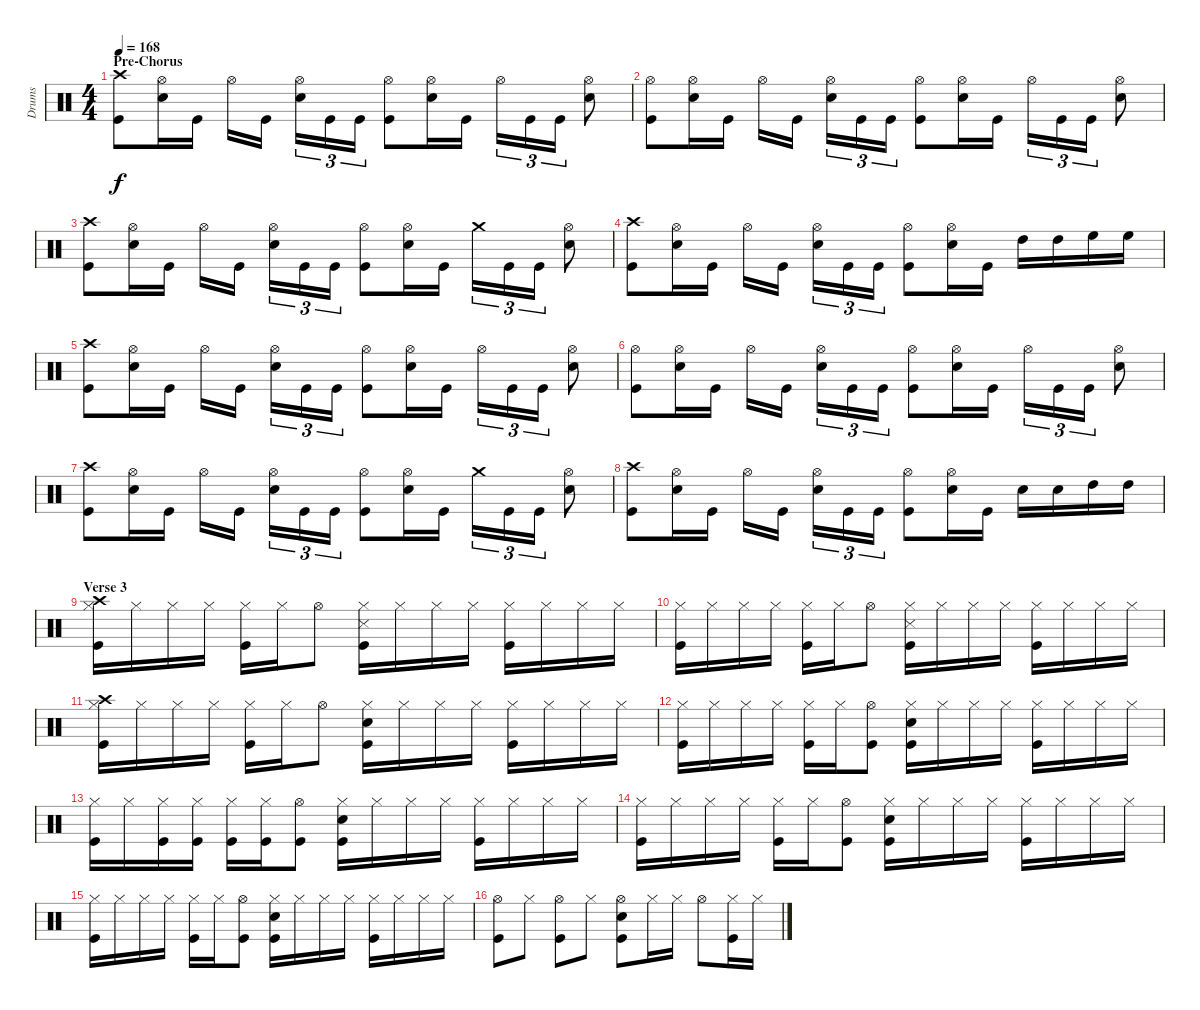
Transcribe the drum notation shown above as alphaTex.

\track ("Drums" "Drums") {instrument percussion}
\staff {score}
\articulation defaults
\ts (4 4)
\section ("" "Pre-Chorus")
\tempo 168
\clef neutral
\ks c
("Crash high (hit)" "Kick (hit)").8{dy f} ("Hi-Hat (open)" "Electric Snare (hit)").16 "Kick (hit)".16 "Hi-Hat (open)".16 "Kick (hit)".16 ("Hi-Hat (open)" "Electric Snare (hit)").16{tu (3 2)} "Kick (hit)".16{tu (3 2)} "Kick (hit)".16{tu (3 2)} ("Hi-Hat (open)" "Kick (hit)").8 ("Hi-Hat (open)" "Electric Snare (hit)").16 "Kick (hit)".16 "Hi-Hat (open)".16{tu (3 2)} "Kick (hit)".16{tu (3 2)} "Kick (hit)".16{tu (3 2)} ("Hi-Hat (open)" "Electric Snare (hit)").8 |
("Hi-Hat (open)" "Kick (hit)").8 ("Hi-Hat (open)" "Electric Snare (hit)").16 "Kick (hit)".16 "Hi-Hat (open)".16 "Kick (hit)".16 ("Hi-Hat (open)" "Electric Snare (hit)").16{tu (3 2)} "Kick (hit)".16{tu (3 2)} "Kick (hit)".16{tu (3 2)} ("Hi-Hat (open)" "Kick (hit)").8 ("Hi-Hat (open)" "Electric Snare (hit)").16 "Kick (hit)".16 "Hi-Hat (open)".16{tu (3 2)} "Kick (hit)".16{tu (3 2)} "Kick (hit)".16{tu (3 2)} ("Hi-Hat (open)" "Electric Snare (hit)").8 |
("Crash high (hit)" "Kick (hit)").8 ("Hi-Hat (open)" "Electric Snare (hit)").16 "Kick (hit)".16 "Hi-Hat (open)".16 "Kick (hit)".16 ("Hi-Hat (open)" "Electric Snare (hit)").16{tu (3 2)} "Kick (hit)".16{tu (3 2)} "Kick (hit)".16{tu (3 2)} ("Hi-Hat (open)" "Kick (hit)").8 ("Hi-Hat (open)" "Electric Snare (hit)").16 "Kick (hit)".16 "Crash medium (hit)".16{tu (3 2)} "Kick (hit)".16{tu (3 2)} "Kick (hit)".16{tu (3 2)} ("Hi-Hat (open)" "Electric Snare (hit)").8 |
("Crash high (hit)" "Kick (hit)").8 ("Hi-Hat (open)" "Electric Snare (hit)").16 "Kick (hit)".16 "Hi-Hat (open)".16 "Kick (hit)".16 ("Hi-Hat (open)" "Electric Snare (hit)").16{tu (3 2)} "Kick (hit)".16{tu (3 2)} "Kick (hit)".16{tu (3 2)} ("Hi-Hat (open)" "Kick (hit)").8 ("Hi-Hat (open)" "Electric Snare (hit)").16 "Kick (hit)".16 "High Tom (hit)".16 "High Tom (hit)".16 "High Floor Tom (hit)".16 "High Floor Tom (hit)".16 |
("Crash high (hit)" "Kick (hit)").8 ("Hi-Hat (open)" "Electric Snare (hit)").16 "Kick (hit)".16 "Hi-Hat (open)".16 "Kick (hit)".16 ("Hi-Hat (open)" "Electric Snare (hit)").16{tu (3 2)} "Kick (hit)".16{tu (3 2)} "Kick (hit)".16{tu (3 2)} ("Hi-Hat (open)" "Kick (hit)").8 ("Hi-Hat (open)" "Electric Snare (hit)").16 "Kick (hit)".16 "Hi-Hat (open)".16{tu (3 2)} "Kick (hit)".16{tu (3 2)} "Kick (hit)".16{tu (3 2)} ("Hi-Hat (open)" "Electric Snare (hit)").8 |
("Hi-Hat (open)" "Kick (hit)").8 ("Hi-Hat (open)" "Electric Snare (hit)").16 "Kick (hit)".16 "Hi-Hat (open)".16 "Kick (hit)".16 ("Hi-Hat (open)" "Electric Snare (hit)").16{tu (3 2)} "Kick (hit)".16{tu (3 2)} "Kick (hit)".16{tu (3 2)} ("Hi-Hat (open)" "Kick (hit)").8 ("Hi-Hat (open)" "Electric Snare (hit)").16 "Kick (hit)".16 "Hi-Hat (open)".16{tu (3 2)} "Kick (hit)".16{tu (3 2)} "Kick (hit)".16{tu (3 2)} ("Hi-Hat (open)" "Electric Snare (hit)").8 |
("Crash high (hit)" "Kick (hit)").8 ("Hi-Hat (open)" "Electric Snare (hit)").16 "Kick (hit)".16 "Hi-Hat (open)".16 "Kick (hit)".16 ("Hi-Hat (open)" "Electric Snare (hit)").16{tu (3 2)} "Kick (hit)".16{tu (3 2)} "Kick (hit)".16{tu (3 2)} ("Hi-Hat (open)" "Kick (hit)").8 ("Hi-Hat (open)" "Electric Snare (hit)").16 "Kick (hit)".16 "Crash medium (hit)".16{tu (3 2)} "Kick (hit)".16{tu (3 2)} "Kick (hit)".16{tu (3 2)} ("Hi-Hat (open)" "Electric Snare (hit)").8 |
("Crash high (hit)" "Kick (hit)").8 ("Hi-Hat (open)" "Electric Snare (hit)").16 "Kick (hit)".16 "Hi-Hat (open)".16 "Kick (hit)".16 ("Hi-Hat (open)" "Electric Snare (hit)").16{tu (3 2)} "Kick (hit)".16{tu (3 2)} "Kick (hit)".16{tu (3 2)} ("Hi-Hat (open)" "Kick (hit)").8 ("Hi-Hat (open)" "Electric Snare (hit)").16 "Kick (hit)".16 "Electric Snare (hit)".16 "Electric Snare (hit)".16 "High Tom (hit)".16 "High Tom (hit)".16 |
\section ("" "Verse 3")
("Hi-Hat (closed)" "Crash high (hit)" "Kick (hit)").16 "Hi-Hat (closed)".16 "Hi-Hat (closed)".16 "Hi-Hat (closed)".16 ("Hi-Hat (closed)" "Kick (hit)").16 "Hi-Hat (closed)".16 "Hi-Hat (open)".8 ("Hi-Hat (closed)" "Snare (side stick) 3" "Kick (hit)").16 "Hi-Hat (closed)".16 "Hi-Hat (closed)".16 "Hi-Hat (closed)".16 ("Hi-Hat (closed)" "Kick (hit)").16 "Hi-Hat (closed)".16 "Hi-Hat (closed)".16 "Hi-Hat (closed)".16 |
("Hi-Hat (closed)" "Kick (hit)").16 "Hi-Hat (closed)".16 "Hi-Hat (closed)".16 "Hi-Hat (closed)".16 ("Hi-Hat (closed)" "Kick (hit)").16 "Hi-Hat (closed)".16 "Hi-Hat (open)".8 ("Hi-Hat (closed)" "Snare (side stick) 3" "Kick (hit)").16 "Hi-Hat (closed)".16 "Hi-Hat (closed)".16 "Hi-Hat (closed)".16 ("Hi-Hat (closed)" "Kick (hit)").16 "Hi-Hat (closed)".16 "Hi-Hat (closed)".16 "Hi-Hat (closed)".16 |
("Hi-Hat (closed)" "Crash high (hit)" "Kick (hit)").16 "Hi-Hat (closed)".16 "Hi-Hat (closed)".16 "Hi-Hat (closed)".16 ("Hi-Hat (closed)" "Kick (hit)").16 "Hi-Hat (closed)".16 "Hi-Hat (open)".8 ("Hi-Hat (closed)" "Electric Snare (hit)" "Kick (hit)").16 "Hi-Hat (closed)".16 "Hi-Hat (closed)".16 "Hi-Hat (closed)".16 ("Hi-Hat (closed)" "Kick (hit)").16 "Hi-Hat (closed)".16 "Hi-Hat (closed)".16 "Hi-Hat (closed)".16 |
("Hi-Hat (closed)" "Kick (hit)").16 "Hi-Hat (closed)".16 "Hi-Hat (closed)".16 "Hi-Hat (closed)".16 ("Hi-Hat (closed)" "Kick (hit)").16 "Hi-Hat (closed)".16 ("Hi-Hat (open)" "Kick (hit)").8 ("Hi-Hat (closed)" "Electric Snare (hit)" "Kick (hit)").16 "Hi-Hat (closed)".16 "Hi-Hat (closed)".16 "Hi-Hat (closed)".16 ("Hi-Hat (closed)" "Kick (hit)").16 "Hi-Hat (closed)".16 "Hi-Hat (closed)".16 "Hi-Hat (closed)".16 |
("Hi-Hat (closed)" "Kick (hit)").16 "Hi-Hat (closed)".16 ("Hi-Hat (closed)" "Kick (hit)").16 ("Hi-Hat (closed)" "Kick (hit)").16 ("Hi-Hat (closed)" "Kick (hit)").16 ("Hi-Hat (closed)" "Kick (hit)").16 ("Hi-Hat (open)" "Kick (hit)").8 ("Hi-Hat (closed)" "Electric Snare (hit)" "Kick (hit)").16 "Hi-Hat (closed)".16 "Hi-Hat (closed)".16 "Hi-Hat (closed)".16 ("Hi-Hat (closed)" "Kick (hit)").16 "Hi-Hat (closed)".16 "Hi-Hat (closed)".16 "Hi-Hat (closed)".16 |
("Hi-Hat (closed)" "Kick (hit)").16 "Hi-Hat (closed)".16 "Hi-Hat (closed)".16 "Hi-Hat (closed)".16 ("Hi-Hat (closed)" "Kick (hit)").16 "Hi-Hat (closed)".16 ("Hi-Hat (open)" "Kick (hit)").8 ("Hi-Hat (closed)" "Electric Snare (hit)" "Kick (hit)").16 "Hi-Hat (closed)".16 "Hi-Hat (closed)".16 "Hi-Hat (closed)".16 ("Hi-Hat (closed)" "Kick (hit)").16 "Hi-Hat (closed)".16 "Hi-Hat (closed)".16 "Hi-Hat (closed)".16 |
("Hi-Hat (closed)" "Kick (hit)").16 "Hi-Hat (closed)".16 "Hi-Hat (closed)".16 "Hi-Hat (closed)".16 ("Hi-Hat (closed)" "Kick (hit)").16 "Hi-Hat (closed)".16 ("Hi-Hat (open)" "Kick (hit)").8 ("Hi-Hat (closed)" "Electric Snare (hit)" "Kick (hit)").16 "Hi-Hat (closed)".16 "Hi-Hat (closed)".16 "Hi-Hat (closed)".16 ("Hi-Hat (closed)" "Kick (hit)").16 "Hi-Hat (closed)".16 "Hi-Hat (closed)".16 "Hi-Hat (closed)".16 |
("Hi-Hat (open)" "Kick (hit)").8 "Hi-Hat (closed)".8 ("Hi-Hat (open)" "Kick (hit)").8 "Hi-Hat (closed)".8 ("Hi-Hat (open)" "Electric Snare (hit)" "Kick (hit)").8 "Hi-Hat (closed)".16 "Hi-Hat (closed)".16 "Hi-Hat (open)".8 ("Hi-Hat (closed)" "Kick (hit)").16 "Hi-Hat (closed)".16
